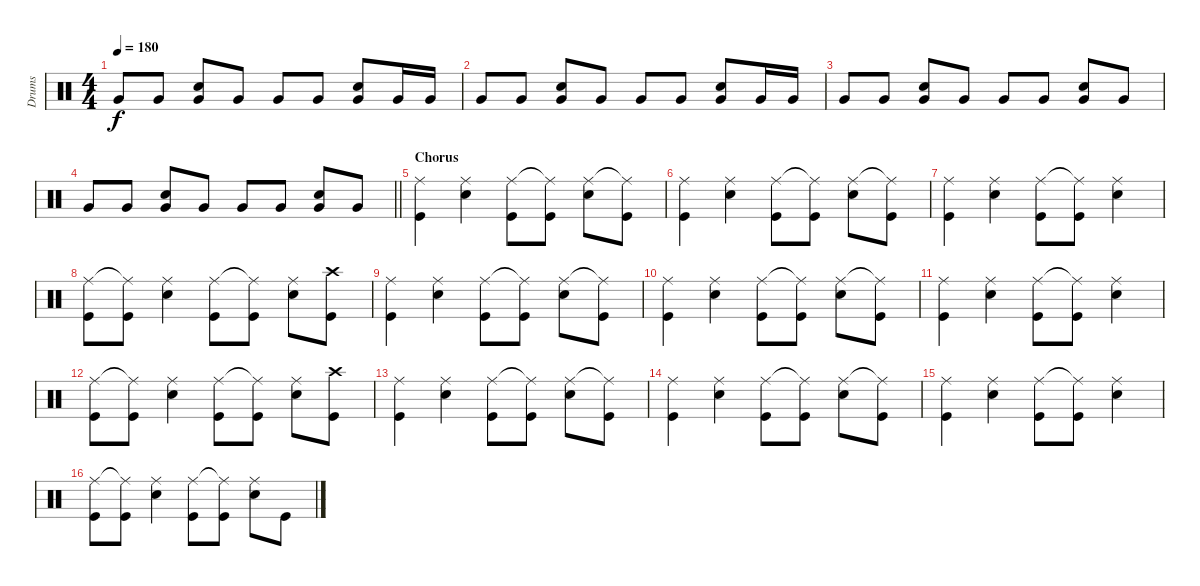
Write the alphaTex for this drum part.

\track ("Drums" "Drums") {instrument percussion}
\staff {score}
\articulation defaults
\ts (4 4)
\tempo 180
\clef neutral
\ks c "Very Low Tom (hit)".8{dy f} "Very Low Tom (hit)".8
("Very Low Tom (hit)" "Snare (hit) 2").8 "Very Low Tom (hit)".8 "Very Low Tom (hit)".8 "Very Low Tom (hit)".8 ("Very Low Tom (hit)" "Snare (hit) 2").8 "Very Low Tom (hit)".16 "Very Low Tom (hit)".16 |
"Very Low Tom (hit)".8 "Very Low Tom (hit)".8 ("Very Low Tom (hit)" "Snare (hit) 2").8 "Very Low Tom (hit)".8 "Very Low Tom (hit)".8 "Very Low Tom (hit)".8 ("Very Low Tom (hit)" "Snare (hit) 2").8 "Very Low Tom (hit)".16 "Very Low Tom (hit)".16 |
"Very Low Tom (hit)".8 "Very Low Tom (hit)".8 ("Very Low Tom (hit)" "Snare (hit) 2").8 "Very Low Tom (hit)".8 "Very Low Tom (hit)".8 "Very Low Tom (hit)".8 ("Very Low Tom (hit)" "Snare (hit) 2").8 "Very Low Tom (hit)".8 |
\barLineRight lightlight "Very Low Tom (hit)".8 "Very Low Tom (hit)".8
("Very Low Tom (hit)" "Snare (hit) 2").8 "Very Low Tom (hit)".8 "Very Low Tom (hit)".8 "Very Low Tom (hit)".8 ("Very Low Tom (hit)" "Snare (hit) 2").8 "Very Low Tom (hit)".8 |
\section ("" "Chorus")
("Kick (hit)" "Ride (middle)").4 ("Snare (hit) 2" "Ride (middle)").4 ("Kick (hit)" "Ride (middle)").8 ("Kick (hit)" "Ride (middle)"{t}).8 ("Snare (hit) 2" "Ride (middle)").8 ("Kick (hit)" "Ride (middle)"{t}).8 |
("Kick (hit)" "Ride (middle)").4 ("Snare (hit) 2" "Ride (middle)").4 ("Kick (hit)" "Ride (middle)").8 ("Kick (hit)" "Ride (middle)"{t}).8 ("Snare (hit) 2" "Ride (middle)").8 ("Kick (hit)" "Ride (middle)"{t}).8 |
("Kick (hit)" "Ride (middle)").4 ("Snare (hit) 2" "Ride (middle)").4 ("Kick (hit)" "Ride (middle)").8 ("Kick (hit)" "Ride (middle)"{t}).8 ("Snare (hit) 2" "Ride (middle)").4 |
("Kick (hit)" "Ride (middle)").8 ("Kick (hit)" "Ride (middle)"{t}).8 ("Snare (hit) 2" "Ride (middle)").4 ("Kick (hit)" "Ride (middle)").8 ("Kick (hit)" "Ride (middle)"{t}).8 ("Snare (hit) 2" "Ride (middle)").8 ("Kick (hit)" "Crash high (hit)").8 |
("Kick (hit)" "Ride (middle)").4 ("Snare (hit) 2" "Ride (middle)").4 ("Kick (hit)" "Ride (middle)").8 ("Kick (hit)" "Ride (middle)"{t}).8 ("Snare (hit) 2" "Ride (middle)").8 ("Kick (hit)" "Ride (middle)"{t}).8 |
("Kick (hit)" "Ride (middle)").4 ("Snare (hit) 2" "Ride (middle)").4 ("Kick (hit)" "Ride (middle)").8 ("Kick (hit)" "Ride (middle)"{t}).8 ("Snare (hit) 2" "Ride (middle)").8 ("Kick (hit)" "Ride (middle)"{t}).8 |
("Kick (hit)" "Ride (middle)").4 ("Snare (hit) 2" "Ride (middle)").4 ("Kick (hit)" "Ride (middle)").8 ("Kick (hit)" "Ride (middle)"{t}).8 ("Snare (hit) 2" "Ride (middle)").4 |
("Kick (hit)" "Ride (middle)").8 ("Kick (hit)" "Ride (middle)"{t}).8 ("Snare (hit) 2" "Ride (middle)").4 ("Kick (hit)" "Ride (middle)").8 ("Kick (hit)" "Ride (middle)"{t}).8 ("Snare (hit) 2" "Ride (middle)").8 ("Kick (hit)" "Crash high (hit)").8 |
("Kick (hit)" "Ride (middle)").4 ("Snare (hit) 2" "Ride (middle)").4 ("Kick (hit)" "Ride (middle)").8 ("Kick (hit)" "Ride (middle)"{t}).8 ("Snare (hit) 2" "Ride (middle)").8 ("Kick (hit)" "Ride (middle)"{t}).8 |
("Kick (hit)" "Ride (middle)").4 ("Snare (hit) 2" "Ride (middle)").4 ("Kick (hit)" "Ride (middle)").8 ("Kick (hit)" "Ride (middle)"{t}).8 ("Snare (hit) 2" "Ride (middle)").8 ("Kick (hit)" "Ride (middle)"{t}).8 |
("Kick (hit)" "Ride (middle)").4 ("Snare (hit) 2" "Ride (middle)").4 ("Kick (hit)" "Ride (middle)").8 ("Kick (hit)" "Ride (middle)"{t}).8 ("Snare (hit) 2" "Ride (middle)").4 |
("Kick (hit)" "Ride (middle)").8 ("Kick (hit)" "Ride (middle)"{t}).8 ("Snare (hit) 2" "Ride (middle)").4 ("Kick (hit)" "Ride (middle)").8 ("Kick (hit)" "Ride (middle)"{t}).8 ("Snare (hit) 2" "Ride (middle)").8 "Kick (hit)".8
